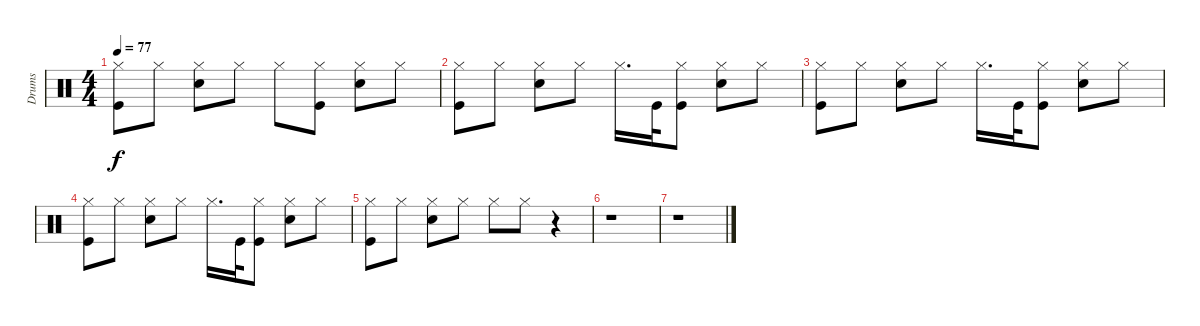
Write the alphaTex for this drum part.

\track ("Drums" "Drums") {instrument percussion}
\staff {score}
\articulation defaults
\ts (4 4)
\tempo 77
\clef neutral
\ks c
("Hi-Hat (closed)" "Kick (hit)").8{dy f} "Hi-Hat (closed)".8 ("Hi-Hat (closed)" "Snare (hit) 2").8 "Hi-Hat (closed)".8 "Hi-Hat (closed)".8 ("Hi-Hat (closed)" "Kick (hit)").8 ("Hi-Hat (closed)" "Snare (hit) 2").8 "Hi-Hat (closed)".8 |
("Hi-Hat (closed)" "Kick (hit)").8 "Hi-Hat (closed)".8 ("Hi-Hat (closed)" "Snare (hit) 2").8 "Hi-Hat (closed)".8 "Hi-Hat (closed)".16{d} "Kick (hit)".32 ("Hi-Hat (closed)" "Kick (hit)").8 ("Hi-Hat (closed)" "Snare (hit) 2").8 "Hi-Hat (closed)".8 |
("Hi-Hat (closed)" "Kick (hit)").8 "Hi-Hat (closed)".8 ("Hi-Hat (closed)" "Snare (hit) 2").8 "Hi-Hat (closed)".8 "Hi-Hat (closed)".16{d} "Kick (hit)".32 ("Hi-Hat (closed)" "Kick (hit)").8 ("Hi-Hat (closed)" "Snare (hit) 2").8 "Hi-Hat (closed)".8 |
("Hi-Hat (closed)" "Kick (hit)").8 "Hi-Hat (closed)".8 ("Hi-Hat (closed)" "Snare (hit) 2").8 "Hi-Hat (closed)".8 "Hi-Hat (closed)".16{d} "Kick (hit)".32 ("Hi-Hat (closed)" "Kick (hit)").8 ("Hi-Hat (closed)" "Snare (hit) 2").8 "Hi-Hat (closed)".8 |
("Hi-Hat (closed)" "Kick (hit)").8 "Hi-Hat (closed)".8 ("Hi-Hat (closed)" "Snare (hit) 2").8 "Hi-Hat (closed)".8 "Hi-Hat (closed)".8 "Hi-Hat (closed)".8 r.4 |
r.1 |
r.1
